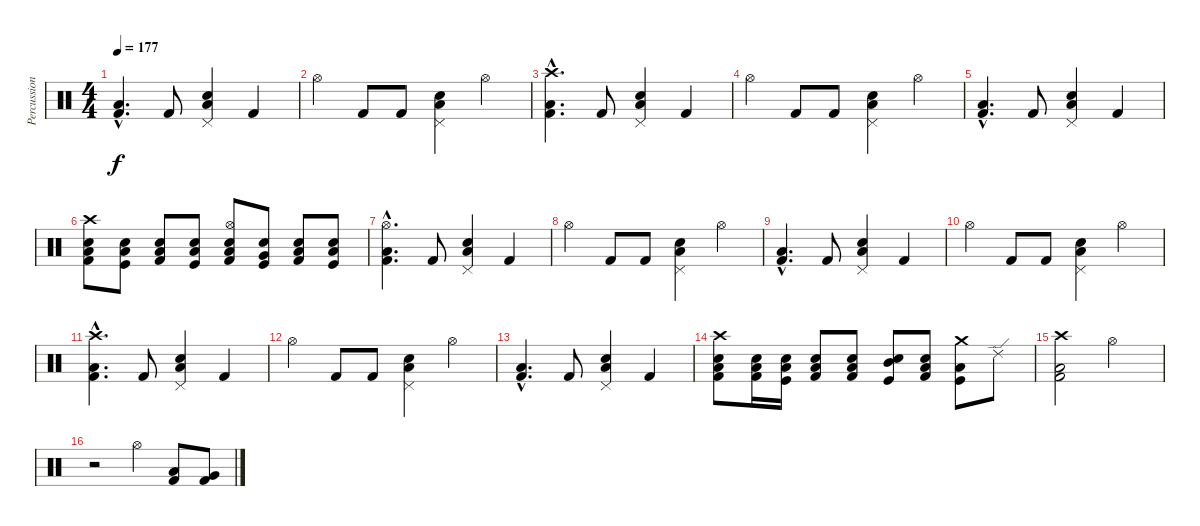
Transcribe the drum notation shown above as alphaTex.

\track ("Percussions" "Percussion") {instrument percussion}
\staff {score}
\articulation defaults
\ts (4 4)
\tempo 177
\clef neutral
\ks c
("Low Tom (hit)"{hac} "Kick (hit) 2"{hac}).4{d dy f} "Kick (hit) 2".8 ("Pedal Hi-Hat (hit)" "Snare (hit) 2" "Low Floor Tom (hit)").4 "Kick (hit) 2".4 |
"Hi-Hat (open)".4 "Kick (hit) 2".8 "Kick (hit) 2".8 ("Low Tom (hit)" "Snare (hit) 2" "Pedal Hi-Hat (hit)").4 "Hi-Hat (open)".4 |
("Low Tom (hit)"{hac} "Crash high (hit)"{hac} "Kick (hit) 2"{hac}).4{d} "Kick (hit) 2".8 ("Pedal Hi-Hat (hit)" "Snare (hit) 2" "Low Floor Tom (hit)").4 "Kick (hit) 2".4 |
"Hi-Hat (open)".4 "Kick (hit) 2".8 "Kick (hit) 2".8 ("Low Tom (hit)" "Snare (hit) 2" "Pedal Hi-Hat (hit)").4 "Hi-Hat (open)".4 |
("Low Tom (hit)"{hac} "Kick (hit) 2"{hac}).4{d} "Kick (hit) 2".8 ("Pedal Hi-Hat (hit)" "Snare (hit) 2" "Low Floor Tom (hit)").4 "Kick (hit) 2".4 |
("Crash high (hit)" "Low Tom (hit)" "Snare (hit) 2" "Kick (hit) 2").8 ("Low Tom (hit)" "Snare (hit) 2" "Kick (hit)").8 ("Low Tom (hit)" "Snare (hit) 2" "Kick (hit) 2").8 ("Low Tom (hit)" "Snare (hit) 2" "Kick (hit)").8 ("Hi-Hat (open)" "Low Floor Tom (hit)" "Electric Snare (hit)" "Kick (hit) 2").8 ("Very Low Tom (hit)" "Snare (hit) 2" "Kick (hit)").8 ("Low Tom (hit)" "Snare (hit) 2" "Kick (hit) 2").8 ("Low Tom (hit)" "Snare (hit) 2" "Kick (hit)").8 |
("Low Tom (hit)"{hac} "Hi-Hat (open)"{hac} "Kick (hit) 2"{hac}).4{d} "Kick (hit) 2".8 ("Pedal Hi-Hat (hit)" "Snare (hit) 2" "Low Floor Tom (hit)").4 "Kick (hit) 2".4 |
"Hi-Hat (open)".4 "Kick (hit) 2".8 "Kick (hit) 2".8 ("Low Tom (hit)" "Snare (hit) 2" "Pedal Hi-Hat (hit)").4 "Hi-Hat (open)".4 |
("Low Tom (hit)"{hac} "Kick (hit) 2"{hac}).4{d} "Kick (hit) 2".8 ("Pedal Hi-Hat (hit)" "Snare (hit) 2" "Low Floor Tom (hit)").4 "Kick (hit) 2".4 |
"Hi-Hat (open)".4 "Kick (hit) 2".8 "Kick (hit) 2".8 ("Low Tom (hit)" "Snare (hit) 2" "Pedal Hi-Hat (hit)").4 "Hi-Hat (open)".4 |
("Low Tom (hit)"{hac} "Crash high (hit)"{hac} "Kick (hit) 2"{hac}).4{d} "Kick (hit) 2".8 ("Pedal Hi-Hat (hit)" "Snare (hit) 2" "Low Floor Tom (hit)").4 "Kick (hit) 2".4 |
"Hi-Hat (open)".4 "Kick (hit) 2".8 "Kick (hit) 2".8 ("Low Tom (hit)" "Snare (hit) 2" "Pedal Hi-Hat (hit)").4 "Hi-Hat (open)".4 |
("Low Tom (hit)"{hac} "Kick (hit) 2"{hac}).4{d} "Kick (hit) 2".8 ("Pedal Hi-Hat (hit)" "Snare (hit) 2" "Low Floor Tom (hit)").4 "Kick (hit) 2".4 |
("Crash high (hit)" "Low Tom (hit)" "Electric Snare (hit)" "Kick (hit) 2").8 ("Low Tom (hit)" "Electric Snare (hit)" "Kick (hit) 2").16 ("Low Tom (hit)" "Electric Snare (hit)" "Kick (hit)").16 ("Low Floor Tom (hit)" "Electric Snare (hit)" "Kick (hit) 2").8 ("Low Tom (hit)" "Electric Snare (hit)" "Kick (hit) 2").8 ("Electric Snare (hit)" "Mid Tom (hit)" "Kick (hit)").8 ("Electric Snare (hit)" "Low Tom (hit)" "Kick (hit) 2").8 ("Low Tom (hit)" "Kick (hit)" "Crash medium (hit)").8 "Ride (edge) 2".8 |
("Crash high (hit)" "Low Tom (hit)" "Kick (hit) 2").2 "Hi-Hat (open)".2 |
r.2 "Hi-Hat (open)".4 ("Kick (hit) 2" "Low Tom (hit)").8 ("Kick (hit) 2" "Very Low Tom (hit)").8
